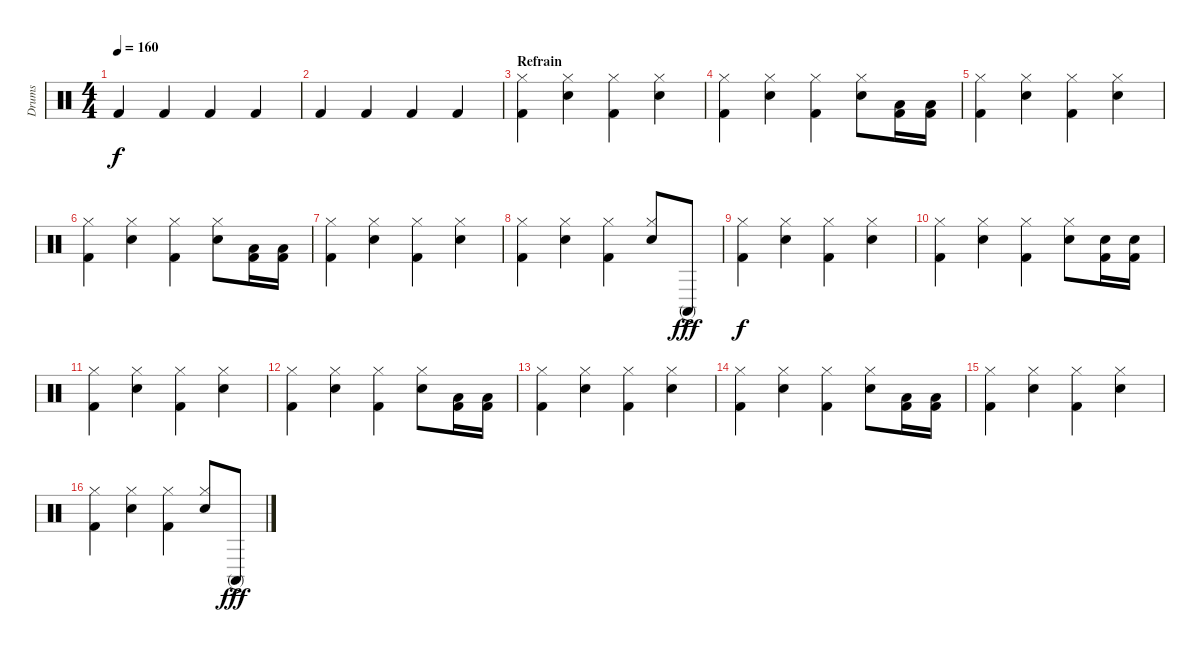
\track ("Drums" "Drums") {instrument percussion}
\staff {score}
\articulation defaults
\ts (4 4)
\tempo 160
\clef neutral
\ks c "Kick (hit) 2".4{dy f} "Kick (hit) 2".4 "Kick (hit) 2".4 "Kick (hit) 2".4
|
"Kick (hit) 2".4 "Kick (hit) 2".4 "Kick (hit) 2".4 "Kick (hit) 2".4 |
\section ("" "Refrain")
("Hi-Hat (closed)" "Kick (hit) 2").4 ("Hi-Hat (closed)" "Snare (hit) 2").4 ("Hi-Hat (closed)" "Kick (hit) 2").4 ("Hi-Hat (closed)" "Snare (hit) 2").4 |
("Hi-Hat (closed)" "Kick (hit) 2").4 ("Hi-Hat (closed)" "Snare (hit) 2").4 ("Hi-Hat (closed)" "Kick (hit) 2").4 ("Hi-Hat (closed)" "Snare (hit) 2").8 ("Low Tom (hit)" "Kick (hit) 2").16 ("Low Floor Tom (hit)" "Kick (hit) 2").16 |
("Hi-Hat (closed)" "Kick (hit) 2").4 ("Hi-Hat (closed)" "Snare (hit) 2").4 ("Hi-Hat (closed)" "Kick (hit) 2").4 ("Hi-Hat (closed)" "Snare (hit) 2").4 |
("Hi-Hat (closed)" "Kick (hit) 2").4 ("Hi-Hat (closed)" "Snare (hit) 2").4 ("Hi-Hat (closed)" "Kick (hit) 2").4 ("Hi-Hat (closed)" "Snare (hit) 2").8 ("Low Tom (hit)" "Kick (hit) 2").16 ("Low Floor Tom (hit)" "Kick (hit) 2").16 |
("Hi-Hat (closed)" "Kick (hit) 2").4 ("Hi-Hat (closed)" "Snare (hit) 2").4 ("Hi-Hat (closed)" "Kick (hit) 2").4 ("Hi-Hat (closed)" "Snare (hit) 2").4 |
("Hi-Hat (closed)" "Kick (hit) 2").4 ("Hi-Hat (closed)" "Snare (hit) 2").4 ("Hi-Hat (closed)" "Kick (hit) 2").4 ("Hi-Hat (closed)" "Snare (hit) 2").8 "Conga high (mute)"{ac}.8{dy fff} |
("Hi-Hat (closed)" "Kick (hit) 2").4{dy f} ("Hi-Hat (closed)" "Snare (hit) 2").4 ("Hi-Hat (closed)" "Kick (hit) 2").4 ("Hi-Hat (closed)" "Snare (hit) 2").4 |
("Hi-Hat (closed)" "Kick (hit) 2").4 ("Hi-Hat (closed)" "Snare (hit) 2").4 ("Hi-Hat (closed)" "Kick (hit) 2").4 ("Hi-Hat (closed)" "Snare (hit) 2").8 ("Snare (hit) 2" "Kick (hit) 2").16 ("Snare (hit) 2" "Kick (hit) 2").16 |
("Hi-Hat (closed)" "Kick (hit) 2").4 ("Hi-Hat (closed)" "Snare (hit) 2").4 ("Hi-Hat (closed)" "Kick (hit) 2").4 ("Hi-Hat (closed)" "Snare (hit) 2").4 |
("Hi-Hat (closed)" "Kick (hit) 2").4 ("Hi-Hat (closed)" "Snare (hit) 2").4 ("Hi-Hat (closed)" "Kick (hit) 2").4 ("Hi-Hat (closed)" "Snare (hit) 2").8 ("Low Tom (hit)" "Kick (hit) 2").16 ("Low Floor Tom (hit)" "Kick (hit) 2").16 |
("Hi-Hat (closed)" "Kick (hit) 2").4 ("Hi-Hat (closed)" "Snare (hit) 2").4 ("Hi-Hat (closed)" "Kick (hit) 2").4 ("Hi-Hat (closed)" "Snare (hit) 2").4 |
("Hi-Hat (closed)" "Kick (hit) 2").4 ("Hi-Hat (closed)" "Snare (hit) 2").4 ("Hi-Hat (closed)" "Kick (hit) 2").4 ("Hi-Hat (closed)" "Snare (hit) 2").8 ("Low Tom (hit)" "Kick (hit) 2").16 ("Low Floor Tom (hit)" "Kick (hit) 2").16 |
("Hi-Hat (closed)" "Kick (hit) 2").4 ("Hi-Hat (closed)" "Snare (hit) 2").4 ("Hi-Hat (closed)" "Kick (hit) 2").4 ("Hi-Hat (closed)" "Snare (hit) 2").4 |
("Hi-Hat (closed)" "Kick (hit) 2").4 ("Hi-Hat (closed)" "Snare (hit) 2").4 ("Hi-Hat (closed)" "Kick (hit) 2").4 ("Hi-Hat (closed)" "Snare (hit) 2").8 "Conga high (mute)"{ac}.8{dy fff}
